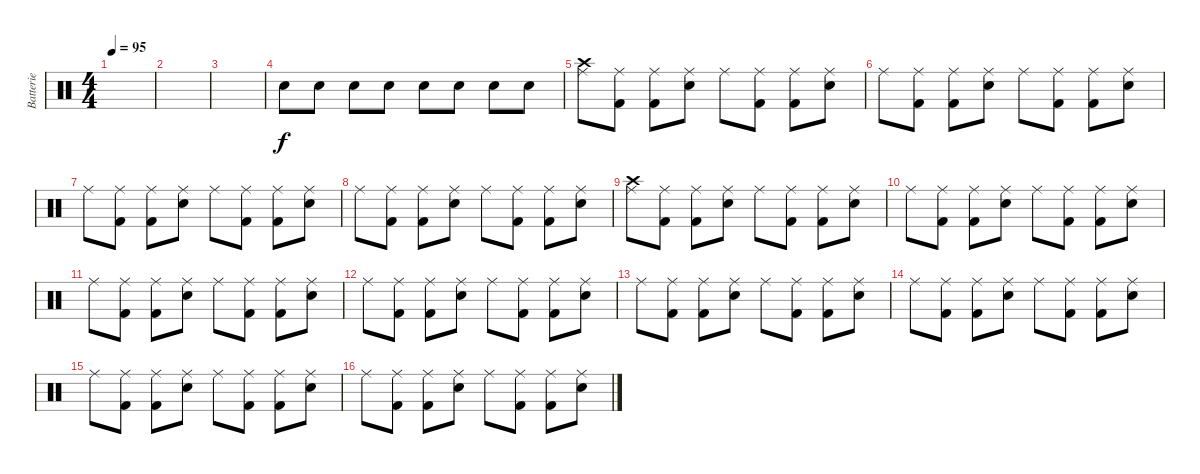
\track ("Batterie" "Batterie") {instrument percussion}
\staff {score}
\articulation defaults
\ts (4 4)
\tempo 95
\clef neutral
\ks c
|
|
|
"Electric Snare (hit)".8 "Electric Snare (hit)".8 "Electric Snare (hit)".8 "Electric Snare (hit)".8 "Electric Snare (hit)".8 "Electric Snare (hit)".8 "Electric Snare (hit)".8 "Electric Snare (hit)".8 |
("Ride (middle)" "Crash high (hit)").8 ("Ride (middle)" "Kick (hit) 2").8 ("Ride (middle)" "Kick (hit) 2").8 ("Ride (middle)" "Electric Snare (hit)").8 "Ride (middle)".8 ("Ride (middle)" "Kick (hit) 2").8 ("Ride (middle)" "Kick (hit) 2").8 ("Ride (middle)" "Electric Snare (hit)").8 |
"Ride (middle)".8 ("Ride (middle)" "Kick (hit) 2").8 ("Ride (middle)" "Kick (hit) 2").8 ("Ride (middle)" "Electric Snare (hit)").8 "Ride (middle)".8 ("Ride (middle)" "Kick (hit) 2").8 ("Ride (middle)" "Kick (hit) 2").8 ("Ride (middle)" "Electric Snare (hit)").8 |
"Ride (middle)".8 ("Ride (middle)" "Kick (hit) 2").8 ("Ride (middle)" "Kick (hit) 2").8 ("Ride (middle)" "Electric Snare (hit)").8 "Ride (middle)".8 ("Ride (middle)" "Kick (hit) 2").8 ("Ride (middle)" "Kick (hit) 2").8 ("Ride (middle)" "Electric Snare (hit)").8 |
"Ride (middle)".8 ("Ride (middle)" "Kick (hit) 2").8 ("Ride (middle)" "Kick (hit) 2").8 ("Ride (middle)" "Electric Snare (hit)").8 "Ride (middle)".8 ("Ride (middle)" "Kick (hit) 2").8 ("Ride (middle)" "Kick (hit) 2").8 ("Ride (middle)" "Electric Snare (hit)").8 |
("Ride (middle)" "Crash high (hit)").8 ("Ride (middle)" "Kick (hit) 2").8 ("Ride (middle)" "Kick (hit) 2").8 ("Ride (middle)" "Electric Snare (hit)").8 "Ride (middle)".8 ("Ride (middle)" "Kick (hit) 2").8 ("Ride (middle)" "Kick (hit) 2").8 ("Ride (middle)" "Electric Snare (hit)").8 |
"Ride (middle)".8 ("Ride (middle)" "Kick (hit) 2").8 ("Ride (middle)" "Kick (hit) 2").8 ("Ride (middle)" "Electric Snare (hit)").8 "Ride (middle)".8 ("Ride (middle)" "Kick (hit) 2").8 ("Ride (middle)" "Kick (hit) 2").8 ("Ride (middle)" "Electric Snare (hit)").8 |
"Ride (middle)".8 ("Ride (middle)" "Kick (hit) 2").8 ("Ride (middle)" "Kick (hit) 2").8 ("Ride (middle)" "Electric Snare (hit)").8 "Ride (middle)".8 ("Ride (middle)" "Kick (hit) 2").8 ("Ride (middle)" "Kick (hit) 2").8 ("Ride (middle)" "Electric Snare (hit)").8 |
"Ride (middle)".8 ("Ride (middle)" "Kick (hit) 2").8 ("Ride (middle)" "Kick (hit) 2").8 ("Ride (middle)" "Electric Snare (hit)").8 "Ride (middle)".8 ("Ride (middle)" "Kick (hit) 2").8 ("Ride (middle)" "Kick (hit) 2").8 ("Ride (middle)" "Electric Snare (hit)").8 |
"Ride (middle)".8 ("Ride (middle)" "Kick (hit) 2").8 ("Ride (middle)" "Kick (hit) 2").8 ("Ride (middle)" "Electric Snare (hit)").8 "Ride (middle)".8 ("Ride (middle)" "Kick (hit) 2").8 ("Ride (middle)" "Kick (hit) 2").8 ("Ride (middle)" "Electric Snare (hit)").8 |
"Ride (middle)".8 ("Ride (middle)" "Kick (hit) 2").8 ("Ride (middle)" "Kick (hit) 2").8 ("Ride (middle)" "Electric Snare (hit)").8 "Ride (middle)".8 ("Ride (middle)" "Kick (hit) 2").8 ("Ride (middle)" "Kick (hit) 2").8 ("Ride (middle)" "Electric Snare (hit)").8 |
"Ride (middle)".8 ("Ride (middle)" "Kick (hit) 2").8 ("Ride (middle)" "Kick (hit) 2").8 ("Ride (middle)" "Electric Snare (hit)").8 "Ride (middle)".8 ("Ride (middle)" "Kick (hit) 2").8 ("Ride (middle)" "Kick (hit) 2").8 ("Ride (middle)" "Electric Snare (hit)").8 |
"Ride (middle)".8 ("Ride (middle)" "Kick (hit) 2").8 ("Ride (middle)" "Kick (hit) 2").8 ("Ride (middle)" "Electric Snare (hit)").8 "Ride (middle)".8 ("Ride (middle)" "Kick (hit) 2").8 ("Ride (middle)" "Kick (hit) 2").8 ("Ride (middle)" "Electric Snare (hit)").8
